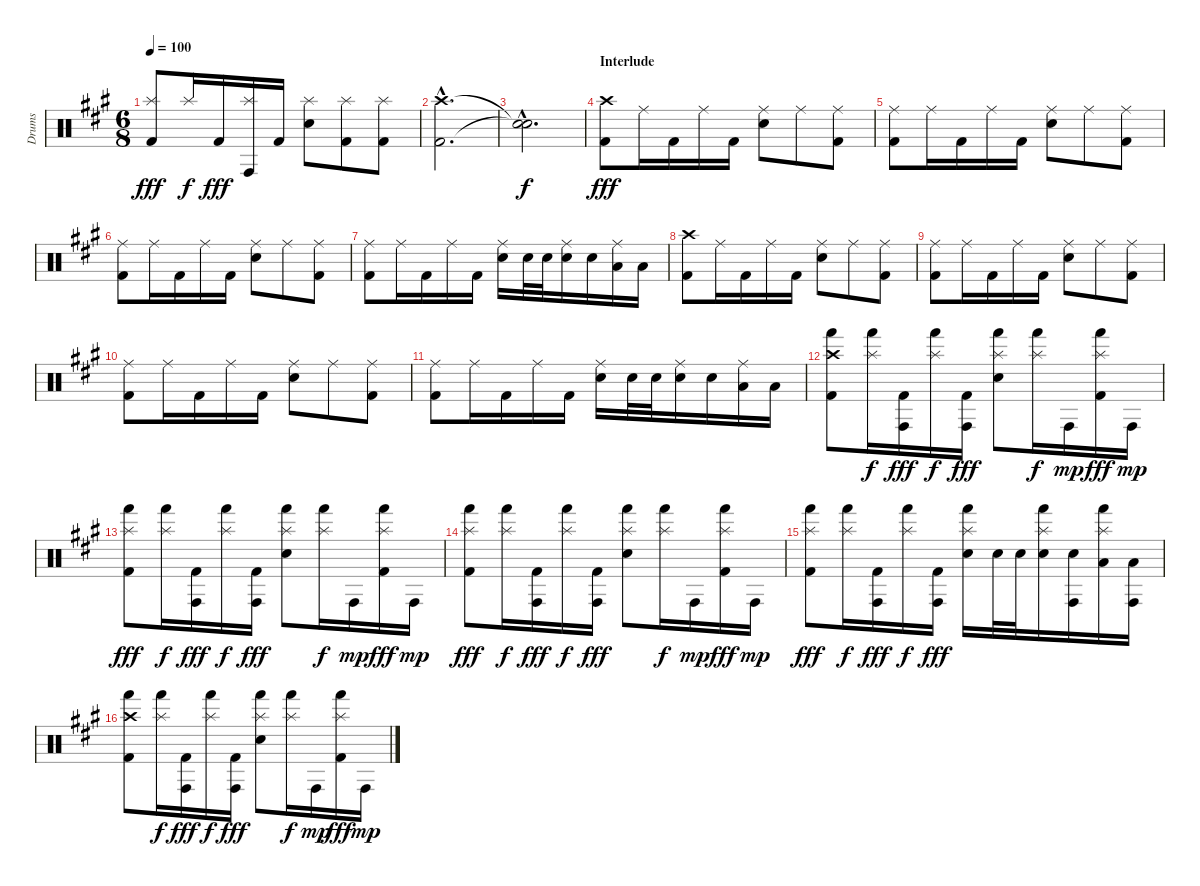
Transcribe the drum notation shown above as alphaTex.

\track ("Drums" "Drums") {instrument percussion}
\staff {score}
\articulation defaults
\ts (6 8)
\tempo 100
\clef neutral
\ks a
("Splash (hit)" "Kick (hit) 2").8{dy fff} "Splash (hit)".16{dy f} "Kick (hit) 2".16{dy fff} ("Splash (hit)" "Conga high (hit)").16 "Kick (hit) 2".16 ("Splash (hit)" "Electric Snare (hit)").8 ("Splash (hit)" "Kick (hit) 2").8 ("Splash (hit)" "Kick (hit) 2").8 |
("Crash high (hit)"{hac} "Kick (hit) 2"{hac}).2{d} |
("Snare (hit)"{hac t} "Snare (hit)"{hac t}).2{d dy f} |
\section ("" "Interlude")
("Crash high (hit)" "Kick (hit) 2").8{dy fff} "Ride (middle)".16 "Kick (hit) 2".16 "Ride (middle)".16 "Kick (hit) 2".16 ("Ride (middle)" "Electric Snare (hit)").8 "Ride (middle)".8 ("Ride (middle)" "Kick (hit) 2").8 |
("Ride (middle)" "Kick (hit) 2").8 "Ride (middle)".16 "Kick (hit) 2".16 "Ride (middle)".16 "Kick (hit) 2".16 ("Ride (middle)" "Electric Snare (hit)").8 "Ride (middle)".8 ("Ride (middle)" "Kick (hit) 2").8 |
("Ride (middle)" "Kick (hit) 2").8 "Ride (middle)".16 "Kick (hit) 2".16 "Ride (middle)".16 "Kick (hit) 2".16 ("Ride (middle)" "Electric Snare (hit)").8 "Ride (middle)".8 ("Ride (middle)" "Kick (hit) 2").8 |
("Ride (middle)" "Kick (hit) 2").8 "Ride (middle)".16 "Kick (hit) 2".16 "Ride (middle)".16 "Kick (hit) 2".16 ("Ride (middle)" "Electric Snare (hit)").16 "Electric Snare (hit)".32 "Electric Snare (hit)".32 ("Ride (middle)" "Electric Snare (hit)").16 "Electric Snare (hit)".16 ("Ride (middle)" "Low Tom (hit)").16 "Low Tom (hit)".16 |
("Crash high (hit)" "Kick (hit) 2").8 "Ride (middle)".16 "Kick (hit) 2".16 "Ride (middle)".16 "Kick (hit) 2".16 ("Ride (middle)" "Electric Snare (hit)").8 "Ride (middle)".8 ("Ride (middle)" "Kick (hit) 2").8 |
("Ride (middle)" "Kick (hit) 2").8 "Ride (middle)".16 "Kick (hit) 2".16 "Ride (middle)".16 "Kick (hit) 2".16 ("Ride (middle)" "Electric Snare (hit)").8 "Ride (middle)".8 ("Ride (middle)" "Kick (hit) 2").8 |
("Ride (middle)" "Kick (hit) 2").8 "Ride (middle)".16 "Kick (hit) 2".16 "Ride (middle)".16 "Kick (hit) 2".16 ("Ride (middle)" "Electric Snare (hit)").8 "Ride (middle)".8 ("Ride (middle)" "Kick (hit) 2").8 |
("Ride (middle)" "Kick (hit) 2").8 "Ride (middle)".16 "Kick (hit) 2".16 "Ride (middle)".16 "Kick (hit) 2".16 ("Ride (middle)" "Electric Snare (hit)").16 "Electric Snare (hit)".32 "Electric Snare (hit)".32 ("Ride (middle)" "Electric Snare (hit)").16 "Electric Snare (hit)".16 ("Ride (middle)" "Low Tom (hit)").16 "Low Tom (hit)".16 |
("Crash high (hit)" "Hand (hit)" "Kick (hit) 2").8 ("Splash (hit)" "Hand (hit)").16{dy f} ("Conga high (hit)" "Kick (hit) 2").16{dy fff} ("Splash (hit)" "Hand (hit)").16{dy f} ("Conga high (hit)" "Kick (hit) 2").16{dy fff} ("Splash (hit)" "Hand (hit)" "Electric Snare (hit)").8 ("Splash (hit)" "Hand (hit)").16{dy f} "Conga high (hit)".16{dy mp} ("Splash (hit)" "Hand (hit)" "Kick (hit) 2").16{dy fff} "Conga high (hit)".16{dy mp} |
("Splash (hit)" "Hand (hit)" "Kick (hit) 2").8{dy fff} ("Splash (hit)" "Hand (hit)").16{dy f} ("Conga high (hit)" "Kick (hit) 2").16{dy fff} ("Splash (hit)" "Hand (hit)").16{dy f} ("Conga high (hit)" "Kick (hit) 2").16{dy fff} ("Splash (hit)" "Hand (hit)" "Electric Snare (hit)").8 ("Splash (hit)" "Hand (hit)").16{dy f} "Conga high (hit)".16{dy mp} ("Splash (hit)" "Hand (hit)" "Kick (hit) 2").16{dy fff} "Conga high (hit)".16{dy mp} |
("Splash (hit)" "Hand (hit)" "Kick (hit) 2").8{dy fff} ("Splash (hit)" "Hand (hit)").16{dy f} ("Conga high (hit)" "Kick (hit) 2").16{dy fff} ("Splash (hit)" "Hand (hit)").16{dy f} ("Conga high (hit)" "Kick (hit) 2").16{dy fff} ("Splash (hit)" "Hand (hit)" "Electric Snare (hit)").8 ("Splash (hit)" "Hand (hit)").16{dy f} "Conga high (hit)".16{dy mp} ("Splash (hit)" "Hand (hit)" "Kick (hit) 2").16{dy fff} "Conga high (hit)".16{dy mp} |
("Splash (hit)" "Hand (hit)" "Kick (hit) 2").8{dy fff} ("Splash (hit)" "Hand (hit)").16{dy f} ("Conga high (hit)" "Kick (hit) 2").16{dy fff} ("Splash (hit)" "Hand (hit)").16{dy f} ("Conga high (hit)" "Kick (hit) 2").16{dy fff} ("Splash (hit)" "Hand (hit)" "Electric Snare (hit)").16 "Electric Snare (hit)".32 "Electric Snare (hit)".32 ("Splash (hit)" "Hand (hit)" "Electric Snare (hit)").16 ("Conga high (hit)" "Electric Snare (hit)").16 ("Splash (hit)" "Hand (hit)" "Low Tom (hit)").16 ("Conga high (hit)" "Low Tom (hit)").16 |
("Crash high (hit)" "Hand (hit)" "Kick (hit) 2").8 ("Splash (hit)" "Hand (hit)").16{dy f} ("Conga high (hit)" "Kick (hit) 2").16{dy fff} ("Splash (hit)" "Hand (hit)").16{dy f} ("Conga high (hit)" "Kick (hit) 2").16{dy fff} ("Splash (hit)" "Hand (hit)" "Electric Snare (hit)").8 ("Splash (hit)" "Hand (hit)").16{dy f} "Conga high (hit)".16{dy mp} ("Splash (hit)" "Hand (hit)" "Kick (hit) 2").16{dy fff} "Conga high (hit)".16{dy mp}
